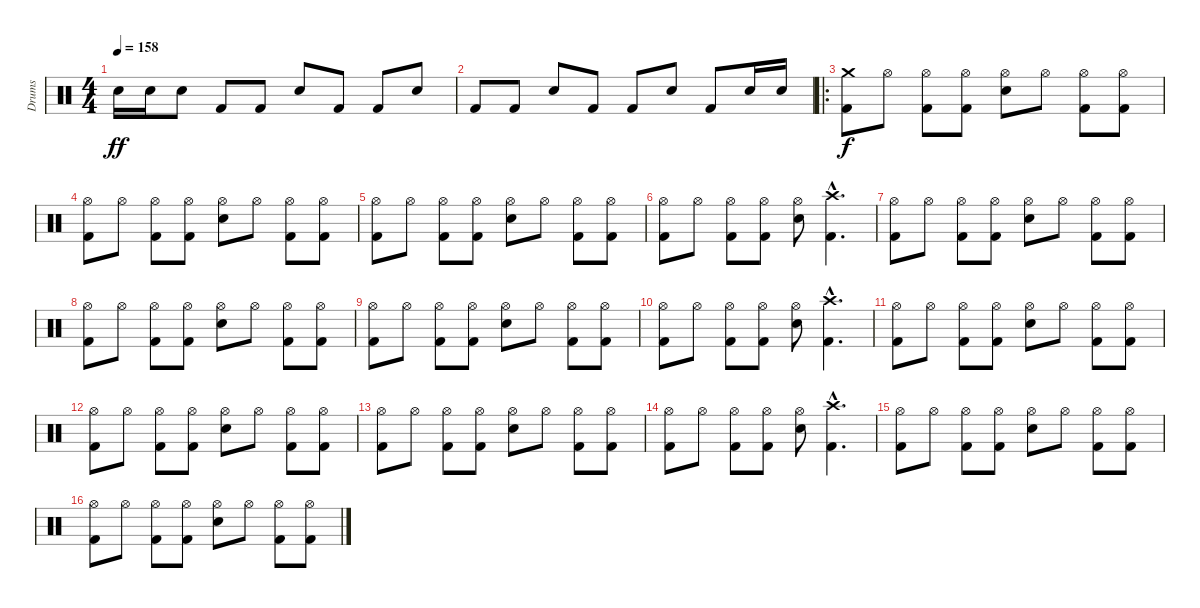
\track ("Drums" "Drums") {instrument percussion}
\staff {score}
\articulation defaults
\ts (4 4)
\tempo 158
\clef neutral
\ks c "Snare (hit) 2".16{dy ff} "Snare (hit) 2".16 "Snare (hit) 2".8 "Kick (hit) 2".8 "Kick (hit) 2".8 "Snare (hit) 2".8 "Kick (hit) 2".8 "Kick (hit) 2".8 "Snare (hit) 2".8
|
"Kick (hit) 2".8 "Kick (hit) 2".8 "Snare (hit) 2".8 "Kick (hit) 2".8 "Kick (hit) 2".8 "Snare (hit) 2".8 "Kick (hit) 2".8 "Snare (hit) 2".16 "Snare (hit) 2".16 |
\ro
("Crash medium (hit)" "Kick (hit) 2").8{dy f} "Hi-Hat (open)".8 ("Hi-Hat (open)" "Kick (hit) 2").8 ("Hi-Hat (open)" "Kick (hit) 2").8 ("Hi-Hat (open)" "Snare (hit) 2").8 "Hi-Hat (open)".8 ("Hi-Hat (open)" "Kick (hit) 2").8 ("Hi-Hat (open)" "Kick (hit) 2").8 |
("Hi-Hat (open)" "Kick (hit) 2").8 "Hi-Hat (open)".8 ("Hi-Hat (open)" "Kick (hit) 2").8 ("Hi-Hat (open)" "Kick (hit) 2").8 ("Hi-Hat (open)" "Snare (hit) 2").8 "Hi-Hat (open)".8 ("Hi-Hat (open)" "Kick (hit) 2").8 ("Hi-Hat (open)" "Kick (hit) 2").8 |
("Hi-Hat (open)" "Kick (hit) 2").8 "Hi-Hat (open)".8 ("Hi-Hat (open)" "Kick (hit) 2").8 ("Hi-Hat (open)" "Kick (hit) 2").8 ("Hi-Hat (open)" "Snare (hit) 2").8 "Hi-Hat (open)".8 ("Hi-Hat (open)" "Kick (hit) 2").8 ("Hi-Hat (open)" "Kick (hit) 2").8 |
("Hi-Hat (open)" "Kick (hit) 2").8 "Hi-Hat (open)".8 ("Hi-Hat (open)" "Kick (hit) 2").8 ("Hi-Hat (open)" "Kick (hit) 2").8 ("Hi-Hat (open)" "Snare (hit) 2").8 ("Crash high (hit)"{hac} "Kick (hit) 2"{hac}).4{d} |
("Hi-Hat (open)" "Kick (hit) 2").8 "Hi-Hat (open)".8 ("Hi-Hat (open)" "Kick (hit) 2").8 ("Hi-Hat (open)" "Kick (hit) 2").8 ("Hi-Hat (open)" "Snare (hit) 2").8 "Hi-Hat (open)".8 ("Hi-Hat (open)" "Kick (hit) 2").8 ("Hi-Hat (open)" "Kick (hit) 2").8 |
("Hi-Hat (open)" "Kick (hit) 2").8 "Hi-Hat (open)".8 ("Hi-Hat (open)" "Kick (hit) 2").8 ("Hi-Hat (open)" "Kick (hit) 2").8 ("Hi-Hat (open)" "Snare (hit) 2").8 "Hi-Hat (open)".8 ("Hi-Hat (open)" "Kick (hit) 2").8 ("Hi-Hat (open)" "Kick (hit) 2").8 |
("Hi-Hat (open)" "Kick (hit) 2").8 "Hi-Hat (open)".8 ("Hi-Hat (open)" "Kick (hit) 2").8 ("Hi-Hat (open)" "Kick (hit) 2").8 ("Hi-Hat (open)" "Snare (hit) 2").8 "Hi-Hat (open)".8 ("Hi-Hat (open)" "Kick (hit) 2").8 ("Hi-Hat (open)" "Kick (hit) 2").8 |
("Hi-Hat (open)" "Kick (hit) 2").8 "Hi-Hat (open)".8 ("Hi-Hat (open)" "Kick (hit) 2").8 ("Hi-Hat (open)" "Kick (hit) 2").8 ("Hi-Hat (open)" "Snare (hit) 2").8 ("Crash high (hit)"{hac} "Kick (hit) 2"{hac}).4{d} |
("Hi-Hat (open)" "Kick (hit) 2").8 "Hi-Hat (open)".8 ("Hi-Hat (open)" "Kick (hit) 2").8 ("Hi-Hat (open)" "Kick (hit) 2").8 ("Hi-Hat (open)" "Snare (hit) 2").8 "Hi-Hat (open)".8 ("Hi-Hat (open)" "Kick (hit) 2").8 ("Hi-Hat (open)" "Kick (hit) 2").8 |
("Hi-Hat (open)" "Kick (hit) 2").8 "Hi-Hat (open)".8 ("Hi-Hat (open)" "Kick (hit) 2").8 ("Hi-Hat (open)" "Kick (hit) 2").8 ("Hi-Hat (open)" "Snare (hit) 2").8 "Hi-Hat (open)".8 ("Hi-Hat (open)" "Kick (hit) 2").8 ("Hi-Hat (open)" "Kick (hit) 2").8 |
("Hi-Hat (open)" "Kick (hit) 2").8 "Hi-Hat (open)".8 ("Hi-Hat (open)" "Kick (hit) 2").8 ("Hi-Hat (open)" "Kick (hit) 2").8 ("Hi-Hat (open)" "Snare (hit) 2").8 "Hi-Hat (open)".8 ("Hi-Hat (open)" "Kick (hit) 2").8 ("Hi-Hat (open)" "Kick (hit) 2").8 |
("Hi-Hat (open)" "Kick (hit) 2").8 "Hi-Hat (open)".8 ("Hi-Hat (open)" "Kick (hit) 2").8 ("Hi-Hat (open)" "Kick (hit) 2").8 ("Hi-Hat (open)" "Snare (hit) 2").8 ("Crash high (hit)"{hac} "Kick (hit) 2"{hac}).4{d} |
("Hi-Hat (open)" "Kick (hit) 2").8 "Hi-Hat (open)".8 ("Hi-Hat (open)" "Kick (hit) 2").8 ("Hi-Hat (open)" "Kick (hit) 2").8 ("Hi-Hat (open)" "Snare (hit) 2").8 "Hi-Hat (open)".8 ("Hi-Hat (open)" "Kick (hit) 2").8 ("Hi-Hat (open)" "Kick (hit) 2").8 |
("Hi-Hat (open)" "Kick (hit) 2").8 "Hi-Hat (open)".8 ("Hi-Hat (open)" "Kick (hit) 2").8 ("Hi-Hat (open)" "Kick (hit) 2").8 ("Hi-Hat (open)" "Snare (hit) 2").8 "Hi-Hat (open)".8 ("Hi-Hat (open)" "Kick (hit) 2").8 ("Hi-Hat (open)" "Kick (hit) 2").8
